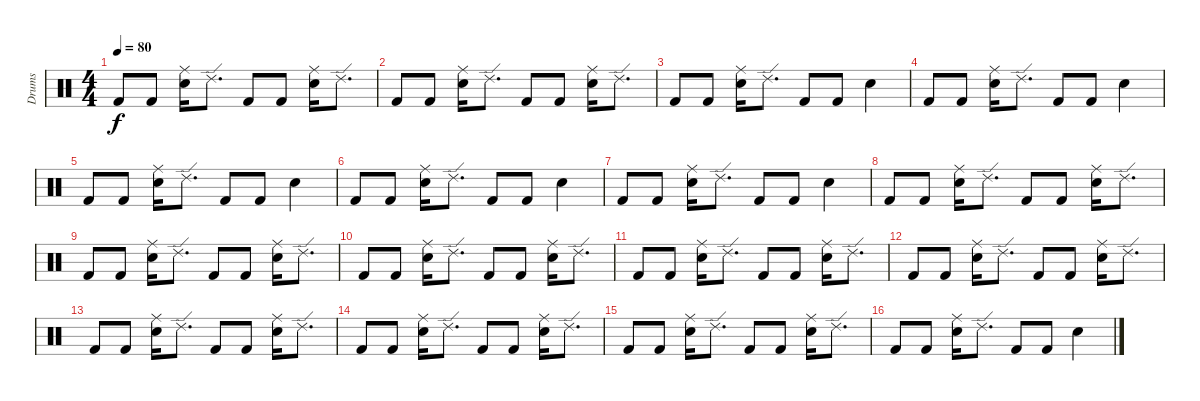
\track ("Drums" "Drums") {instrument percussion}
\staff {score}
\articulation defaults
\ts (4 4)
\tempo 80
\clef neutral
\ks c "Kick (hit) 2".8{dy f} "Kick (hit) 2".8
("Ride (middle)" "Snare (hit) 2").16 "Ride (edge) 2".8{d} "Kick (hit) 2".8 "Kick (hit) 2".8 ("Ride (middle)" "Snare (hit) 2").16 "Ride (edge) 2".8{d} |
"Kick (hit) 2".8 "Kick (hit) 2".8 ("Ride (middle)" "Snare (hit) 2").16 "Ride (edge) 2".8{d} "Kick (hit) 2".8 "Kick (hit) 2".8 ("Ride (middle)" "Snare (hit) 2").16 "Ride (edge) 2".8{d} |
"Kick (hit) 2".8 "Kick (hit) 2".8 ("Ride (middle)" "Snare (hit) 2").16 "Ride (edge) 2".8{d} "Kick (hit) 2".8 "Kick (hit) 2".8 "Snare (hit) 2".4 |
"Kick (hit) 2".8 "Kick (hit) 2".8 ("Ride (middle)" "Snare (hit) 2").16 "Ride (edge) 2".8{d} "Kick (hit) 2".8 "Kick (hit) 2".8 "Snare (hit) 2".4 |
"Kick (hit) 2".8 "Kick (hit) 2".8 ("Ride (middle)" "Snare (hit) 2").16 "Ride (edge) 2".8{d} "Kick (hit) 2".8 "Kick (hit) 2".8 "Snare (hit) 2".4 |
"Kick (hit) 2".8 "Kick (hit) 2".8 ("Ride (middle)" "Snare (hit) 2").16 "Ride (edge) 2".8{d} "Kick (hit) 2".8 "Kick (hit) 2".8 "Snare (hit) 2".4 |
"Kick (hit) 2".8 "Kick (hit) 2".8 ("Ride (middle)" "Snare (hit) 2").16 "Ride (edge) 2".8{d} "Kick (hit) 2".8 "Kick (hit) 2".8 "Snare (hit) 2".4 |
"Kick (hit) 2".8 "Kick (hit) 2".8 ("Ride (middle)" "Snare (hit) 2").16 "Ride (edge) 2".8{d} "Kick (hit) 2".8 "Kick (hit) 2".8 ("Ride (middle)" "Snare (hit) 2").16 "Ride (edge) 2".8{d} |
"Kick (hit) 2".8 "Kick (hit) 2".8 ("Ride (middle)" "Snare (hit) 2").16 "Ride (edge) 2".8{d} "Kick (hit) 2".8 "Kick (hit) 2".8 ("Ride (middle)" "Snare (hit) 2").16 "Ride (edge) 2".8{d} |
"Kick (hit) 2".8 "Kick (hit) 2".8 ("Ride (middle)" "Snare (hit) 2").16 "Ride (edge) 2".8{d} "Kick (hit) 2".8 "Kick (hit) 2".8 ("Ride (middle)" "Snare (hit) 2").16 "Ride (edge) 2".8{d} |
"Kick (hit) 2".8 "Kick (hit) 2".8 ("Ride (middle)" "Snare (hit) 2").16 "Ride (edge) 2".8{d} "Kick (hit) 2".8 "Kick (hit) 2".8 ("Ride (middle)" "Snare (hit) 2").16 "Ride (edge) 2".8{d} |
"Kick (hit) 2".8 "Kick (hit) 2".8 ("Ride (middle)" "Snare (hit) 2").16 "Ride (edge) 2".8{d} "Kick (hit) 2".8 "Kick (hit) 2".8 ("Ride (middle)" "Snare (hit) 2").16 "Ride (edge) 2".8{d} |
"Kick (hit) 2".8 "Kick (hit) 2".8 ("Ride (middle)" "Snare (hit) 2").16 "Ride (edge) 2".8{d} "Kick (hit) 2".8 "Kick (hit) 2".8 ("Ride (middle)" "Snare (hit) 2").16 "Ride (edge) 2".8{d} |
"Kick (hit) 2".8 "Kick (hit) 2".8 ("Ride (middle)" "Snare (hit) 2").16 "Ride (edge) 2".8{d} "Kick (hit) 2".8 "Kick (hit) 2".8 ("Ride (middle)" "Snare (hit) 2").16 "Ride (edge) 2".8{d} |
"Kick (hit) 2".8 "Kick (hit) 2".8 ("Ride (middle)" "Snare (hit) 2").16 "Ride (edge) 2".8{d} "Kick (hit) 2".8 "Kick (hit) 2".8 ("Ride (middle)" "Snare (hit) 2").16 "Ride (edge) 2".8{d} |
"Kick (hit) 2".8 "Kick (hit) 2".8 ("Ride (middle)" "Snare (hit) 2").16 "Ride (edge) 2".8{d} "Kick (hit) 2".8 "Kick (hit) 2".8 "Snare (hit) 2".4
